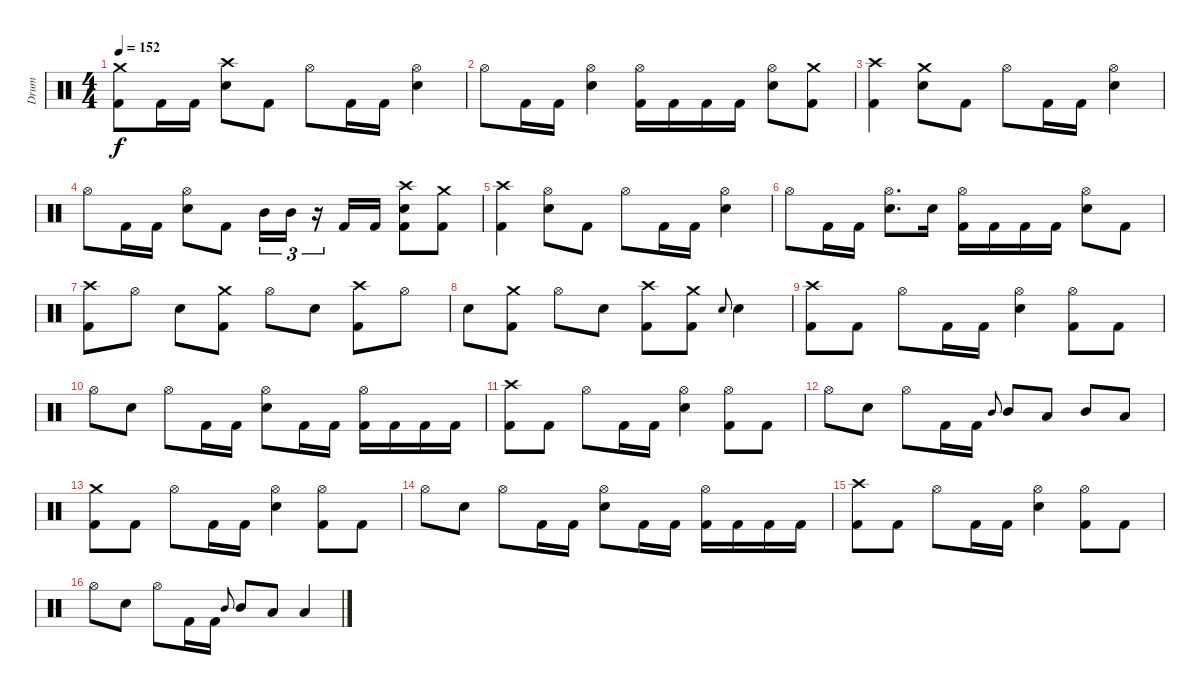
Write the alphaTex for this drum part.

\track ("Drum" "Drum") {instrument percussion}
\staff {score}
\articulation defaults
\ts (4 4)
\tempo 152
\clef neutral
\ks c
("Crash medium (hit)" "Kick (hit) 2").8{dy f} "Kick (hit) 2".16 "Kick (hit) 2".16 ("Crash high (hit)" "Snare (hit) 2").8 "Kick (hit) 2".8 "Hi-Hat (open)".8 "Kick (hit) 2".16 "Kick (hit) 2".16 ("Hi-Hat (open)" "Snare (hit) 2").4 |
"Hi-Hat (open)".8 "Kick (hit) 2".16 "Kick (hit) 2".16 ("Hi-Hat (open)" "Snare (hit) 2").4 ("Hi-Hat (open)" "Kick (hit) 2").16 "Kick (hit) 2".16 "Kick (hit) 2".16 "Kick (hit) 2".16 ("Hi-Hat (open)" "Snare (hit) 2").8 ("Crash medium (hit)" "Kick (hit) 2").8 |
("Crash high (hit)" "Kick (hit) 2").4 ("Crash medium (hit)" "Snare (hit) 2").8 "Kick (hit) 2".8 "Hi-Hat (open)".8 "Kick (hit) 2".16 "Kick (hit) 2".16 ("Hi-Hat (open)" "Snare (hit) 2").4 |
"Hi-Hat (open)".8 "Kick (hit) 2".16 "Kick (hit) 2".16 ("Hi-Hat (open)" "Snare (hit) 2").8 "Kick (hit) 2".8 "Mid Tom (hit)".16{tu (3 2)} "Mid Tom (hit)".16{tu (3 2)} r.16{tu (3 2)} "Kick (hit) 2".16 "Kick (hit) 2".16 ("Crash high (hit)" "Snare (hit) 2" "Kick (hit) 2").8 ("Crash medium (hit)" "Kick (hit) 2").8 |
("Crash high (hit)" "Kick (hit) 2").4 ("Hi-Hat (open)" "Snare (hit) 2").8 "Kick (hit) 2".8 "Hi-Hat (open)".8 "Kick (hit) 2".16 "Kick (hit) 2".16 ("Hi-Hat (open)" "Snare (hit) 2").4 |
"Hi-Hat (open)".8 "Kick (hit) 2".16 "Kick (hit) 2".16 ("Hi-Hat (open)" "Snare (hit) 2").8{d} "Snare (hit) 2".16 ("Hi-Hat (open)" "Kick (hit) 2").16 "Kick (hit) 2".16 "Kick (hit) 2".16 "Kick (hit) 2".16 ("Hi-Hat (open)" "Snare (hit) 2").8 "Kick (hit) 2".8 |
("Crash high (hit)" "Kick (hit) 2").8 "Hi-Hat (open)".8 "Snare (hit) 2".8 ("Crash medium (hit)" "Kick (hit) 2").8 "Hi-Hat (open)".8 "Snare (hit) 2".8 ("Crash high (hit)" "Kick (hit) 2").8 "Hi-Hat (open)".8 |
"Snare (hit) 2".8 ("Crash medium (hit)" "Kick (hit) 2").8 "Hi-Hat (open)".8 "Snare (hit) 2".8 ("Crash high (hit)" "Kick (hit) 2").8 ("Crash medium (hit)" "Kick (hit) 2").8 "Snare (hit) 2".8{gr onbeat} "Snare (hit) 2".4 |
("Crash high (hit)" "Kick (hit) 2").8 "Kick (hit) 2".8 "Hi-Hat (open)".8 "Kick (hit) 2".16 "Kick (hit) 2".16 ("Hi-Hat (open)" "Snare (hit) 2").4 ("Hi-Hat (open)" "Kick (hit) 2").8 "Kick (hit) 2".8 |
"Hi-Hat (open)".8 "Snare (hit) 2".8 "Hi-Hat (open)".8 "Kick (hit) 2".16 "Kick (hit) 2".16 ("Hi-Hat (open)" "Snare (hit) 2").8 "Kick (hit) 2".16 "Kick (hit) 2".16 ("Hi-Hat (open)" "Kick (hit) 2").16 "Kick (hit) 2".16 "Kick (hit) 2".16 "Kick (hit) 2".16 |
("Crash high (hit)" "Kick (hit) 2").8 "Kick (hit) 2".8 "Hi-Hat (open)".8 "Kick (hit) 2".16 "Kick (hit) 2".16 ("Hi-Hat (open)" "Snare (hit) 2").4 ("Hi-Hat (open)" "Kick (hit) 2").8 "Kick (hit) 2".8 |
"Hi-Hat (open)".8 "Snare (hit) 2".8 "Hi-Hat (open)".8 "Kick (hit) 2".16 "Kick (hit) 2".16 "Mid Tom (hit)".8{gr onbeat} "Mid Tom (hit)".8 "Low Tom (hit)".8 "Mid Tom (hit)".8 "Low Floor Tom (hit)".8 |
("Crash medium (hit)" "Kick (hit) 2").8 "Kick (hit) 2".8 "Hi-Hat (open)".8 "Kick (hit) 2".16 "Kick (hit) 2".16 ("Hi-Hat (open)" "Snare (hit) 2").4 ("Hi-Hat (open)" "Kick (hit) 2").8 "Kick (hit) 2".8 |
"Hi-Hat (open)".8 "Snare (hit) 2".8 "Hi-Hat (open)".8 "Kick (hit) 2".16 "Kick (hit) 2".16 ("Hi-Hat (open)" "Snare (hit) 2").8 "Kick (hit) 2".16 "Kick (hit) 2".16 ("Hi-Hat (open)" "Kick (hit) 2").16 "Kick (hit) 2".16 "Kick (hit) 2".16 "Kick (hit) 2".16 |
("Crash high (hit)" "Kick (hit) 2").8 "Kick (hit) 2".8 "Hi-Hat (open)".8 "Kick (hit) 2".16 "Kick (hit) 2".16 ("Hi-Hat (open)" "Snare (hit) 2").4 ("Hi-Hat (open)" "Kick (hit) 2").8 "Kick (hit) 2".8 |
"Hi-Hat (open)".8 "Snare (hit) 2".8 "Hi-Hat (open)".8 "Kick (hit) 2".16 "Kick (hit) 2".16 "Mid Tom (hit)".8{gr onbeat} "Mid Tom (hit)".8 "Low Tom (hit)".8 "Low Floor Tom (hit)".4
